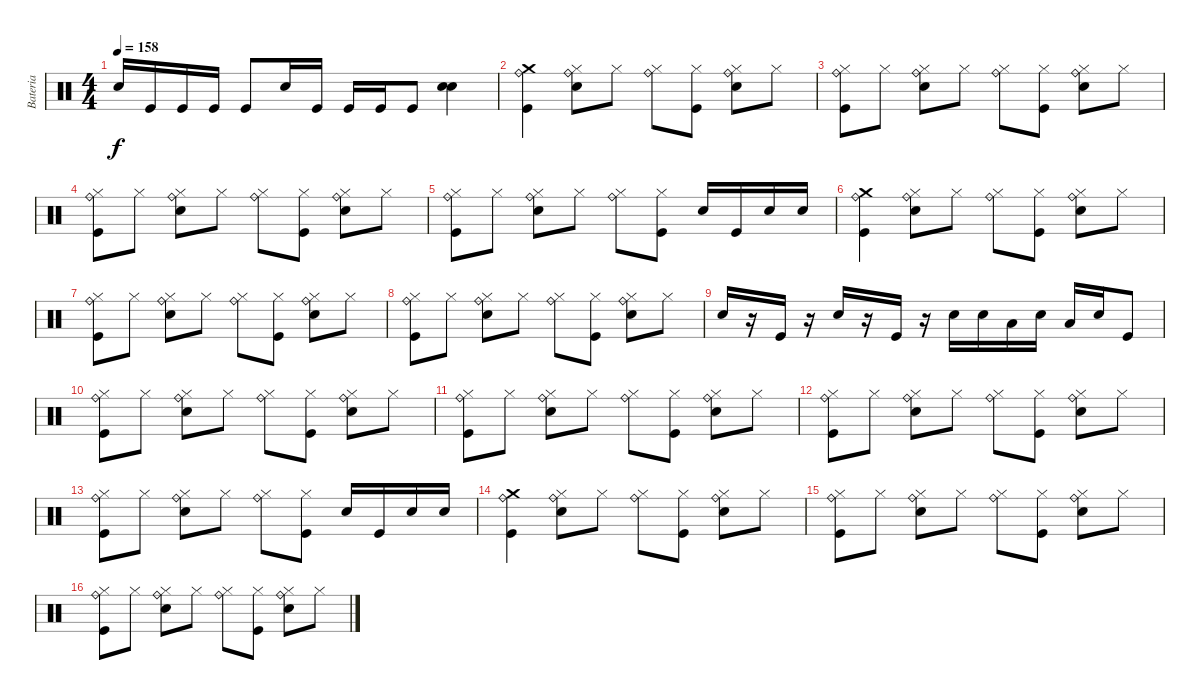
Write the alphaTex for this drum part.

\track ("Bateria" "Bateria") {instrument percussion}
\staff {score}
\articulation defaults
\ts (4 4)
\tempo 158
\clef neutral
\ks c "Snare (hit) 2".16{dy f} "Kick (hit)".16 "Kick (hit)".16 "Kick (hit)".16 "Kick (hit)".8 "Snare (hit) 2".16 "Kick (hit)".16 "Kick (hit)".16 "Kick (hit)".16 "Kick (hit)".8
("Snare (hit) 2" "Electric Snare (hit)").4 |
("Kick (hit)" "Crash medium (hit)" "Ride (bell)").4 ("Electric Snare (hit)" "Hi-Hat (closed)" "Ride (bell)").8 "Hi-Hat (closed)".8 ("Hi-Hat (closed)" "Ride (bell)").8 ("Kick (hit)" "Hi-Hat (closed)").8 ("Electric Snare (hit)" "Hi-Hat (closed)" "Ride (bell)").8 "Hi-Hat (closed)".8 |
("Kick (hit)" "Hi-Hat (closed)" "Ride (bell)").8 "Hi-Hat (closed)".8 ("Electric Snare (hit)" "Hi-Hat (closed)" "Ride (bell)").8 "Hi-Hat (closed)".8 ("Hi-Hat (closed)" "Ride (bell)").8 ("Kick (hit)" "Hi-Hat (closed)").8 ("Electric Snare (hit)" "Hi-Hat (closed)" "Ride (bell)").8 "Hi-Hat (closed)".8 |
("Kick (hit)" "Hi-Hat (closed)" "Ride (bell)").8 "Hi-Hat (closed)".8 ("Electric Snare (hit)" "Hi-Hat (closed)" "Ride (bell)").8 "Hi-Hat (closed)".8 ("Hi-Hat (closed)" "Ride (bell)").8 ("Kick (hit)" "Hi-Hat (closed)").8 ("Electric Snare (hit)" "Hi-Hat (closed)" "Ride (bell)").8 "Hi-Hat (closed)".8 |
("Kick (hit)" "Hi-Hat (closed)" "Ride (bell)").8 "Hi-Hat (closed)".8 ("Electric Snare (hit)" "Hi-Hat (closed)" "Ride (bell)").8 "Hi-Hat (closed)".8 ("Hi-Hat (closed)" "Ride (bell)").8 ("Kick (hit)" "Hi-Hat (closed)").8 "Electric Snare (hit)".16 "Kick (hit)".16 "Snare (hit) 2".16 "Electric Snare (hit)".16 |
("Kick (hit)" "Crash medium (hit)" "Ride (bell)").4 ("Electric Snare (hit)" "Hi-Hat (closed)" "Ride (bell)").8 "Hi-Hat (closed)".8 ("Hi-Hat (closed)" "Ride (bell)").8 ("Kick (hit)" "Hi-Hat (closed)").8 ("Electric Snare (hit)" "Hi-Hat (closed)" "Ride (bell)").8 "Hi-Hat (closed)".8 |
("Kick (hit)" "Hi-Hat (closed)" "Ride (bell)").8 "Hi-Hat (closed)".8 ("Electric Snare (hit)" "Hi-Hat (closed)" "Ride (bell)").8 "Hi-Hat (closed)".8 ("Hi-Hat (closed)" "Ride (bell)").8 ("Kick (hit)" "Hi-Hat (closed)").8 ("Electric Snare (hit)" "Hi-Hat (closed)" "Ride (bell)").8 "Hi-Hat (closed)".8 |
("Kick (hit)" "Hi-Hat (closed)" "Ride (bell)").8 "Hi-Hat (closed)".8 ("Electric Snare (hit)" "Hi-Hat (closed)" "Ride (bell)").8 "Hi-Hat (closed)".8 ("Hi-Hat (closed)" "Ride (bell)").8 ("Kick (hit)" "Hi-Hat (closed)").8 ("Electric Snare (hit)" "Hi-Hat (closed)" "Ride (bell)").8 "Hi-Hat (closed)".8 |
"Electric Snare (hit)".16 r.16 "Kick (hit)".16 r.16 "Electric Snare (hit)".16 r.16 "Kick (hit)".16 r.16 "Electric Snare (hit)".16 "Electric Snare (hit)".16 "Low Tom (hit)".16 "Electric Snare (hit)".16 "Low Tom (hit)".16 "Electric Snare (hit)".16 "Kick (hit)".8 |
("Kick (hit)" "Hi-Hat (closed)" "Ride (bell)").8 "Hi-Hat (closed)".8 ("Electric Snare (hit)" "Hi-Hat (closed)" "Ride (bell)").8 "Hi-Hat (closed)".8 ("Hi-Hat (closed)" "Ride (bell)").8 ("Kick (hit)" "Hi-Hat (closed)").8 ("Electric Snare (hit)" "Hi-Hat (closed)" "Ride (bell)").8 "Hi-Hat (closed)".8 |
("Kick (hit)" "Hi-Hat (closed)" "Ride (bell)").8 "Hi-Hat (closed)".8 ("Electric Snare (hit)" "Hi-Hat (closed)" "Ride (bell)").8 "Hi-Hat (closed)".8 ("Hi-Hat (closed)" "Ride (bell)").8 ("Kick (hit)" "Hi-Hat (closed)").8 ("Electric Snare (hit)" "Hi-Hat (closed)" "Ride (bell)").8 "Hi-Hat (closed)".8 |
("Kick (hit)" "Hi-Hat (closed)" "Ride (bell)").8 "Hi-Hat (closed)".8 ("Electric Snare (hit)" "Hi-Hat (closed)" "Ride (bell)").8 "Hi-Hat (closed)".8 ("Hi-Hat (closed)" "Ride (bell)").8 ("Kick (hit)" "Hi-Hat (closed)").8 ("Electric Snare (hit)" "Hi-Hat (closed)" "Ride (bell)").8 "Hi-Hat (closed)".8 |
("Kick (hit)" "Hi-Hat (closed)" "Ride (bell)").8 "Hi-Hat (closed)".8 ("Electric Snare (hit)" "Hi-Hat (closed)" "Ride (bell)").8 "Hi-Hat (closed)".8 ("Hi-Hat (closed)" "Ride (bell)").8 ("Kick (hit)" "Hi-Hat (closed)").8 "Electric Snare (hit)".16 "Kick (hit)".16 "Snare (hit) 2".16 "Electric Snare (hit)".16 |
("Kick (hit)" "Crash medium (hit)" "Ride (bell)").4 ("Electric Snare (hit)" "Hi-Hat (closed)" "Ride (bell)").8 "Hi-Hat (closed)".8 ("Hi-Hat (closed)" "Ride (bell)").8 ("Kick (hit)" "Hi-Hat (closed)").8 ("Electric Snare (hit)" "Hi-Hat (closed)" "Ride (bell)").8 "Hi-Hat (closed)".8 |
("Kick (hit)" "Hi-Hat (closed)" "Ride (bell)").8 "Hi-Hat (closed)".8 ("Electric Snare (hit)" "Hi-Hat (closed)" "Ride (bell)").8 "Hi-Hat (closed)".8 ("Hi-Hat (closed)" "Ride (bell)").8 ("Kick (hit)" "Hi-Hat (closed)").8 ("Electric Snare (hit)" "Hi-Hat (closed)" "Ride (bell)").8 "Hi-Hat (closed)".8 |
("Kick (hit)" "Hi-Hat (closed)" "Ride (bell)").8 "Hi-Hat (closed)".8 ("Electric Snare (hit)" "Hi-Hat (closed)" "Ride (bell)").8 "Hi-Hat (closed)".8 ("Hi-Hat (closed)" "Ride (bell)").8 ("Kick (hit)" "Hi-Hat (closed)").8 ("Electric Snare (hit)" "Hi-Hat (closed)" "Ride (bell)").8 "Hi-Hat (closed)".8
